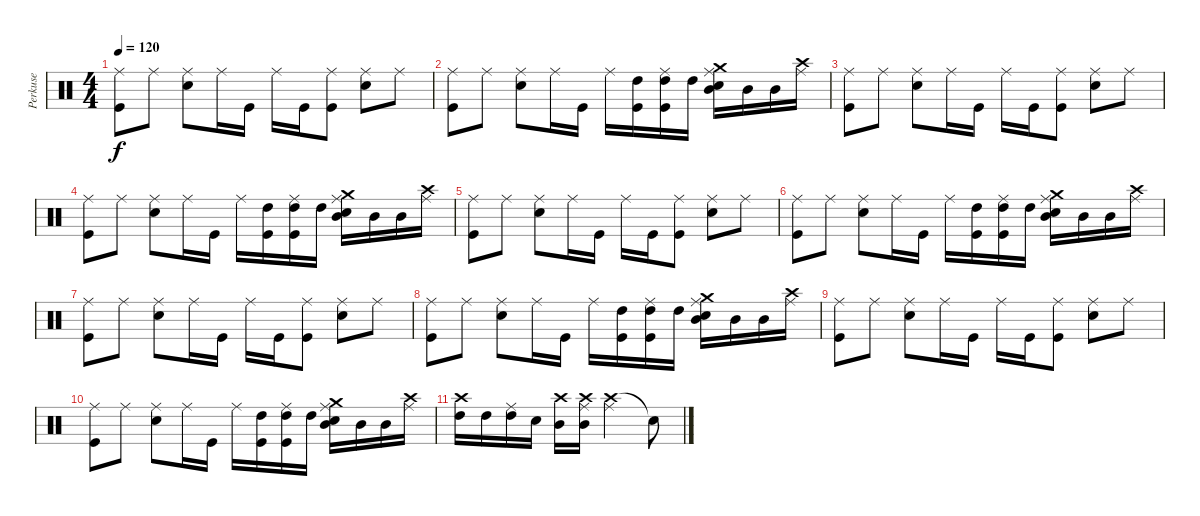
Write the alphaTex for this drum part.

\track ("Perkuse" "Perkuse") {instrument percussion}
\staff {score}
\articulation defaults
\ts (4 4)
\tempo 120
\clef neutral
\ks c
("Ride (middle)" "Kick (hit)").8{dy f} "Ride (middle)".8 ("Ride (middle)" "Snare (hit) 2").8 "Ride (middle)".16 "Kick (hit)".16 "Ride (middle)".16 "Kick (hit)".16 ("Ride (middle)" "Kick (hit)").8 ("Ride (middle)" "Snare (hit) 2").8 "Ride (middle)".8 |
("Ride (middle)" "Kick (hit)").8 "Ride (middle)".8 ("Ride (middle)" "Snare (hit) 2").8 "Ride (middle)".16 "Kick (hit)".16 "Ride (middle)".16 ("Kick (hit)" "High Tom (hit)").16 ("Ride (middle)" "Kick (hit)" "High Tom (hit)").16 "High Tom (hit)".16 ("Ride (middle)" "Crash medium (hit)" "Snare (hit) 2" "Mid Tom (hit)").16 "Mid Tom (hit)".16 "Mid Tom (hit)".16 ("Ride (middle)" "Crash high (hit)").16 |
("Ride (middle)" "Kick (hit)").8 "Ride (middle)".8 ("Ride (middle)" "Snare (hit) 2").8 "Ride (middle)".16 "Kick (hit)".16 "Ride (middle)".16 "Kick (hit)".16 ("Ride (middle)" "Kick (hit)").8 ("Ride (middle)" "Snare (hit) 2").8 "Ride (middle)".8 |
("Ride (middle)" "Kick (hit)").8 "Ride (middle)".8 ("Ride (middle)" "Snare (hit) 2").8 "Ride (middle)".16 "Kick (hit)".16 "Ride (middle)".16 ("Kick (hit)" "High Tom (hit)").16 ("Ride (middle)" "Kick (hit)" "High Tom (hit)").16 "High Tom (hit)".16 ("Ride (middle)" "Crash medium (hit)" "Snare (hit) 2" "Mid Tom (hit)").16 "Mid Tom (hit)".16 "Mid Tom (hit)".16 ("Ride (middle)" "Crash high (hit)").16 |
("Ride (middle)" "Kick (hit)").8 "Ride (middle)".8 ("Ride (middle)" "Snare (hit) 2").8 "Ride (middle)".16 "Kick (hit)".16 "Ride (middle)".16 "Kick (hit)".16 ("Ride (middle)" "Kick (hit)").8 ("Ride (middle)" "Snare (hit) 2").8 "Ride (middle)".8 |
("Ride (middle)" "Kick (hit)").8 "Ride (middle)".8 ("Ride (middle)" "Snare (hit) 2").8 "Ride (middle)".16 "Kick (hit)".16 "Ride (middle)".16 ("Kick (hit)" "High Tom (hit)").16 ("Ride (middle)" "Kick (hit)" "High Tom (hit)").16 "High Tom (hit)".16 ("Ride (middle)" "Crash medium (hit)" "Snare (hit) 2" "Mid Tom (hit)").16 "Mid Tom (hit)".16 "Mid Tom (hit)".16 ("Ride (middle)" "Crash high (hit)").16 |
("Ride (middle)" "Kick (hit)").8 "Ride (middle)".8 ("Ride (middle)" "Snare (hit) 2").8 "Ride (middle)".16 "Kick (hit)".16 "Ride (middle)".16 "Kick (hit)".16 ("Ride (middle)" "Kick (hit)").8 ("Ride (middle)" "Snare (hit) 2").8 "Ride (middle)".8 |
("Ride (middle)" "Kick (hit)").8 "Ride (middle)".8 ("Ride (middle)" "Snare (hit) 2").8 "Ride (middle)".16 "Kick (hit)".16 "Ride (middle)".16 ("Kick (hit)" "High Tom (hit)").16 ("Ride (middle)" "Kick (hit)" "High Tom (hit)").16 "High Tom (hit)".16 ("Ride (middle)" "Crash medium (hit)" "Snare (hit) 2" "Mid Tom (hit)").16 "Mid Tom (hit)".16 "Mid Tom (hit)".16 ("Ride (middle)" "Crash high (hit)").16 |
("Ride (middle)" "Kick (hit)").8 "Ride (middle)".8 ("Ride (middle)" "Snare (hit) 2").8 "Ride (middle)".16 "Kick (hit)".16 "Ride (middle)".16 "Kick (hit)".16 ("Ride (middle)" "Kick (hit)").8 ("Ride (middle)" "Snare (hit) 2").8 "Ride (middle)".8 |
("Ride (middle)" "Kick (hit)").8 "Ride (middle)".8 ("Ride (middle)" "Snare (hit) 2").8 "Ride (middle)".16 "Kick (hit)".16 "Ride (middle)".16 ("Kick (hit)" "High Tom (hit)").16 ("Ride (middle)" "Kick (hit)" "High Tom (hit)").16 "High Tom (hit)".16 ("Ride (middle)" "Crash medium (hit)" "Snare (hit) 2" "Mid Tom (hit)").16 "Mid Tom (hit)".16 "Mid Tom (hit)".16 ("Ride (middle)" "Crash high (hit)").16 |
("Crash high (hit)" "High Tom (hit)").16 "High Tom (hit)".16 ("Ride (middle)" "High Tom (hit)").16 "Snare (hit) 2".16 ("Crash high (hit)" "Mid Tom (hit)").16 ("Crash high (hit)" "Ride (middle)" "Mid Tom (hit)").16 ("Crash high (hit)" "Ride (middle)").2 "Snare (hit)"{t}.8
